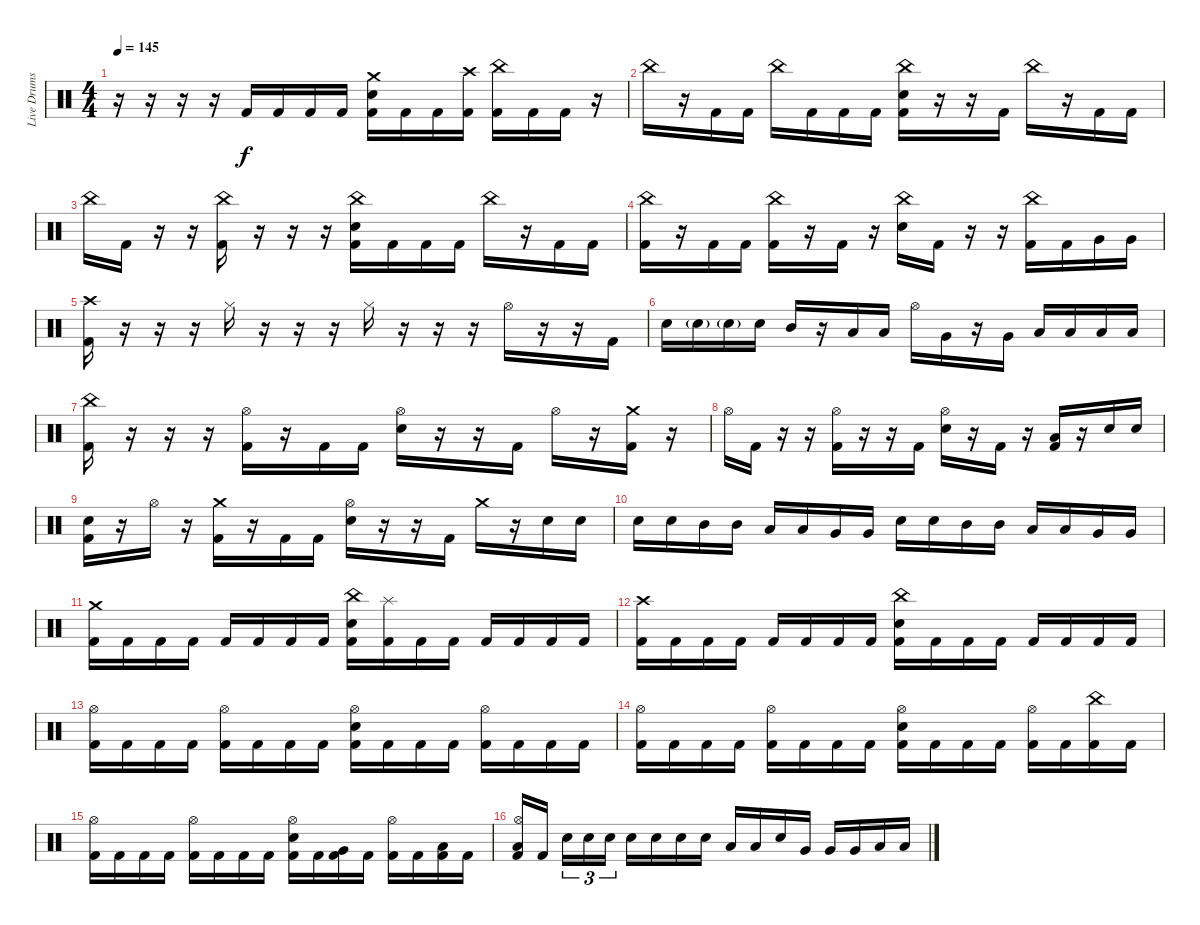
\track ("Live Drums" "Live Drums") {instrument percussion}
\staff {score}
\articulation defaults
\ts (4 4)
\tempo 145
\clef neutral
\ks c
r.16{dy f} r.16 r.16 r.16 "Kick (hit) 2".16 "Kick (hit) 2".16 "Kick (hit) 2".16 "Kick (hit) 2".16 ("Crash medium (hit)" "Snare (hit) 2" "Kick (hit) 2").16 "Kick (hit) 2".16 "Kick (hit) 2".16 ("Crash high (hit)" "Kick (hit) 2").16 ("China (hit)" "Kick (hit) 2").16 "Kick (hit) 2".16 "Kick (hit) 2".16 r.16 |
"China (hit)".16 r.16 "Kick (hit) 2".16 "Kick (hit) 2".16 "China (hit)".16 "Kick (hit) 2".16 "Kick (hit) 2".16 "Kick (hit) 2".16 ("China (hit)" "Snare (hit) 2" "Kick (hit) 2").16 r.16 r.16 "Kick (hit) 2".16 "China (hit)".16 r.16 "Kick (hit) 2".16 "Kick (hit) 2".16 |
"China (hit)".16 "Kick (hit) 2".16 r.16 r.16 ("China (hit)" "Kick (hit) 2").16 r.16 r.16 r.16 ("China (hit)" "Snare (hit) 2" "Kick (hit) 2").16 "Kick (hit) 2".16 "Kick (hit) 2".16 "Kick (hit) 2".16 "China (hit)".16 r.16 "Kick (hit) 2".16 "Kick (hit) 2".16 |
("China (hit)" "Kick (hit) 2").16 r.16 "Kick (hit) 2".16 "Kick (hit) 2".16 ("China (hit)" "Kick (hit) 2").16 r.16 "Kick (hit) 2".16 r.16 ("China (hit)" "Snare (hit) 2").16 "Kick (hit) 2".16 r.16 r.16 ("China (hit)" "Kick (hit) 2").16 "Kick (hit) 2".16 "Very Low Tom (hit)".16 "Very Low Tom (hit)".16 |
("Crash high (hit)" "Kick (hit) 2").16 r.16 r.16 r.16 "Hi-Hat (closed)".16 r.16 r.16 r.16 "Hi-Hat (closed)".16 r.16 r.16 r.16 "Hi-Hat (open)".16 r.16 r.16 "Kick (hit) 2".16 |
"Snare (hit) 2".16 "Snare (hit) 2"{g}.16 "Snare (hit) 2"{g}.16 "Snare (hit) 2".16 "Mid Tom (hit)".16 r.16 "Low Tom (hit)".16 "Low Tom (hit)".16 "Hi-Hat (open)".16 "Very Low Tom (hit)".16 r.16 "Very Low Tom (hit)".16 "Low Floor Tom (hit)".16 "Low Floor Tom (hit)".16 "Low Floor Tom (hit)".16 "Low Floor Tom (hit)".16 |
("China (hit)" "Kick (hit) 2").16 r.16 r.16 r.16 ("Hi-Hat (open)" "Kick (hit) 2").16 r.16 "Kick (hit) 2".16 "Kick (hit) 2".16 ("Hi-Hat (open)" "Snare (hit) 2").16 r.16 r.16 "Kick (hit) 2".16 "Hi-Hat (open)".16 r.16 ("Crash medium (hit)" "Kick (hit) 2").16 r.16 |
"Hi-Hat (open)".16 "Kick (hit) 2".16 r.16 r.16 ("Hi-Hat (open)" "Kick (hit) 2").16 r.16 r.16 "Kick (hit) 2".16 ("Hi-Hat (open)" "Snare (hit) 2").16 r.16 "Kick (hit) 2".16 r.16 ("Low Tom (hit)" "Kick (hit) 2").16 r.16 "Snare (hit) 2".16 "Snare (hit) 2".16 |
("Snare (hit) 2" "Kick (hit) 2").16 r.16 "Hi-Hat (open)".16 r.16 ("Crash medium (hit)" "Kick (hit) 2").16 r.16 "Kick (hit) 2".16 "Kick (hit) 2".16 ("Hi-Hat (open)" "Snare (hit) 2").16 r.16 r.16 "Kick (hit) 2".16 "Crash medium (hit)".16 r.16 "Snare (hit) 2".16{volume 12} "Snare (hit) 2".16 |
"Snare (hit) 2".16{volume 15} "Snare (hit) 2".16 "Mid Tom (hit)".16 "Mid Tom (hit)".16 "Low Tom (hit)".16 "Low Tom (hit)".16 "Very Low Tom (hit)".16 "Very Low Tom (hit)".16 "Snare (hit) 2".16 "Snare (hit) 2".16 "Mid Tom (hit)".16 "Mid Tom (hit)".16 "Low Tom (hit)".16 "Low Tom (hit)".16 "Very Low Tom (hit)".16 "Very Low Tom (hit)".16 |
("Crash medium (hit)" "Kick (hit) 2").16 "Kick (hit) 2".16 "Kick (hit) 2".16 "Kick (hit) 2".16 "Kick (hit) 2".16 "Kick (hit) 2".16 "Kick (hit) 2".16 "Kick (hit) 2".16 ("China (hit)" "Snare (hit) 2" "Kick (hit) 2").16 ("Splash (hit)" "Kick (hit) 2").16 "Kick (hit) 2".16 "Kick (hit) 2".16 "Kick (hit) 2".16 "Kick (hit) 2".16 "Kick (hit) 2".16 "Kick (hit) 2".16 |
("Crash high (hit)" "Kick (hit) 2").16 "Kick (hit) 2".16 "Kick (hit) 2".16 "Kick (hit) 2".16 "Kick (hit) 2".16 "Kick (hit) 2".16 "Kick (hit) 2".16 "Kick (hit) 2".16 ("China (hit)" "Snare (hit) 2" "Kick (hit) 2").16 "Kick (hit) 2".16 "Kick (hit) 2".16 "Kick (hit) 2".16 "Kick (hit) 2".16 "Kick (hit) 2".16 "Kick (hit) 2".16 "Kick (hit) 2".16 |
("Hi-Hat (open)" "Kick (hit) 2").16 "Kick (hit) 2".16 "Kick (hit) 2".16 "Kick (hit) 2".16 ("Hi-Hat (open)" "Kick (hit) 2").16 "Kick (hit) 2".16 "Kick (hit) 2".16 "Kick (hit) 2".16 ("Hi-Hat (open)" "Snare (hit) 2" "Kick (hit) 2").16 "Kick (hit) 2".16 "Kick (hit) 2".16 "Kick (hit) 2".16 ("Hi-Hat (open)" "Kick (hit) 2").16 "Kick (hit) 2".16 "Kick (hit) 2".16 "Kick (hit) 2".16 |
("Hi-Hat (open)" "Kick (hit) 2").16 "Kick (hit) 2".16 "Kick (hit) 2".16 "Kick (hit) 2".16 ("Hi-Hat (open)" "Kick (hit) 2").16 "Kick (hit) 2".16 "Kick (hit) 2".16 "Kick (hit) 2".16 ("Hi-Hat (open)" "Snare (hit) 2" "Kick (hit) 2").16 "Kick (hit) 2".16 "Kick (hit) 2".16 "Kick (hit) 2".16 ("Hi-Hat (open)" "Kick (hit) 2").16 "Kick (hit) 2".16 ("China (hit)" "Kick (hit) 2").16 "Kick (hit) 2".16 |
("Hi-Hat (open)" "Kick (hit) 2").16 "Kick (hit) 2".16 "Kick (hit) 2".16 "Kick (hit) 2".16 ("Hi-Hat (open)" "Kick (hit) 2").16 "Kick (hit) 2".16 "Kick (hit) 2".16 "Kick (hit) 2".16 ("Hi-Hat (open)" "Snare (hit) 2" "Kick (hit) 2").16 "Kick (hit) 2".16 ("Very Low Tom (hit)" "Kick (hit) 2").16 "Kick (hit) 2".16 ("Hi-Hat (open)" "Kick (hit) 2").16 "Kick (hit) 2".16 ("Low Tom (hit)" "Kick (hit) 2").16 "Kick (hit) 2".16 |
("Hi-Hat (open)" "Low Tom (hit)" "Kick (hit) 2").16 "Kick (hit) 2".16{beam splitsecondary} "Snare (hit) 2".16{tu (3 2)} "Snare (hit) 2".16{tu (3 2)} "Snare (hit) 2".16{tu (3 2)} "Snare (hit) 2".16 "Snare (hit) 2".16 "Snare (hit) 2".16 "Snare (hit) 2".16 "Low Tom (hit)".16 "Low Tom (hit)".16 "Snare (hit) 2".16 "Very Low Tom (hit)".16 "Very Low Tom (hit)".16 "Very Low Tom (hit)".16 "Low Floor Tom (hit)".16 "Low Floor Tom (hit)".16
